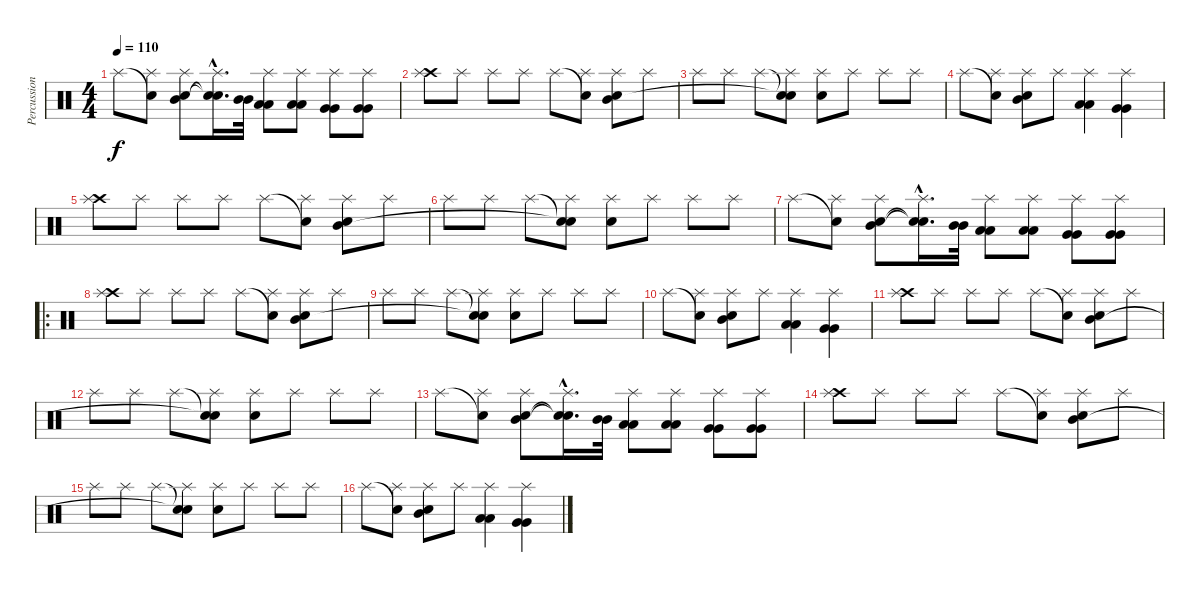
\track ("Percussions" "Percussion") {instrument percussion}
\staff {score}
\articulation defaults
\ts (4 4)
\tempo 110
\clef neutral
\ks c "Splash (hit)".8{dy f}
("Snare (hit)"{t} "Splash (hit)").8 ("Electric Snare (hit)" "Mid Tom (hit)" "Splash (hit)").8 ("Snare (hit)"{hac t} "Snare (hit)"{hac t} "Splash (hit)"{hac}).16{d} ("Mid Tom (hit)" "Mid Tom (hit)").32 ("Low Tom (hit)" "Low Tom (hit)" "Splash (hit)").8 ("Low Tom (hit)" "Low Tom (hit)" "Splash (hit)").8 ("Very Low Tom (hit)" "Very Low Tom (hit)" "Splash (hit)").8 ("Very Low Tom (hit)" "Very Low Tom (hit)" "Splash (hit)").8 |
("Crash high (hit)" "Splash (hit)").8 "Splash (hit)".8 "Splash (hit)".8 "Splash (hit)".8 "Splash (hit)".8 ("Electric Snare (hit)"{t} "Splash (hit)").8 ("Electric Snare (hit)" "Mid Tom (hit)" "Splash (hit)").8 "Splash (hit)".8 |
"Splash (hit)".8 "Splash (hit)".8 "Splash (hit)".8 ("Snare (hit)"{t} "Snare (hit)"{t} "Splash (hit)").8 ("Electric Snare (hit)" "Splash (hit)").8 "Splash (hit)".8 "Splash (hit)".8 "Splash (hit)".8 |
"Splash (hit)".8 ("Snare (hit)"{t} "Splash (hit)").8 ("Electric Snare (hit)" "Mid Tom (hit)" "Splash (hit)").8 "Splash (hit)".8 ("Low Tom (hit)" "Low Tom (hit)" "Splash (hit)").4 ("Very Low Tom (hit)" "Very Low Tom (hit)" "Splash (hit)").4 |
("Crash high (hit)" "Splash (hit)").8 "Splash (hit)".8 "Splash (hit)".8 "Splash (hit)".8 "Splash (hit)".8 ("Electric Snare (hit)"{t} "Splash (hit)").8 ("Electric Snare (hit)" "Mid Tom (hit)" "Splash (hit)").8 "Splash (hit)".8 |
"Splash (hit)".8 "Splash (hit)".8 "Splash (hit)".8 ("Snare (hit)"{t} "Snare (hit)"{t} "Splash (hit)").8 ("Electric Snare (hit)" "Splash (hit)").8 "Splash (hit)".8 "Splash (hit)".8 "Splash (hit)".8 |
"Splash (hit)".8 ("Snare (hit)"{t} "Splash (hit)").8 ("Electric Snare (hit)" "Mid Tom (hit)" "Splash (hit)").8 ("Snare (hit)"{hac t} "Snare (hit)"{hac t} "Splash (hit)"{hac}).16{d} ("Mid Tom (hit)" "Mid Tom (hit)").32 ("Low Tom (hit)" "Low Tom (hit)" "Splash (hit)").8 ("Low Tom (hit)" "Low Tom (hit)" "Splash (hit)").8 ("Very Low Tom (hit)" "Very Low Tom (hit)" "Splash (hit)").8 ("Very Low Tom (hit)" "Very Low Tom (hit)" "Splash (hit)").8 |
\ro
("Crash high (hit)" "Splash (hit)").8 "Splash (hit)".8 "Splash (hit)".8 "Splash (hit)".8 "Splash (hit)".8 ("Electric Snare (hit)"{t} "Splash (hit)").8 ("Electric Snare (hit)" "Mid Tom (hit)" "Splash (hit)").8 "Splash (hit)".8 |
"Splash (hit)".8 "Splash (hit)".8 "Splash (hit)".8 ("Snare (hit)"{t} "Snare (hit)"{t} "Splash (hit)").8 ("Electric Snare (hit)" "Splash (hit)").8 "Splash (hit)".8 "Splash (hit)".8 "Splash (hit)".8 |
"Splash (hit)".8 ("Snare (hit)"{t} "Splash (hit)").8 ("Electric Snare (hit)" "Mid Tom (hit)" "Splash (hit)").8 "Splash (hit)".8 ("Low Tom (hit)" "Low Tom (hit)" "Splash (hit)").4 ("Very Low Tom (hit)" "Very Low Tom (hit)" "Splash (hit)").4 |
("Crash high (hit)" "Splash (hit)").8 "Splash (hit)".8 "Splash (hit)".8 "Splash (hit)".8 "Splash (hit)".8 ("Electric Snare (hit)"{t} "Splash (hit)").8 ("Electric Snare (hit)" "Mid Tom (hit)" "Splash (hit)").8 "Splash (hit)".8 |
"Splash (hit)".8 "Splash (hit)".8 "Splash (hit)".8 ("Snare (hit)"{t} "Snare (hit)"{t} "Splash (hit)").8 ("Electric Snare (hit)" "Splash (hit)").8 "Splash (hit)".8 "Splash (hit)".8 "Splash (hit)".8 |
"Splash (hit)".8 ("Snare (hit)"{t} "Splash (hit)").8 ("Electric Snare (hit)" "Mid Tom (hit)" "Splash (hit)").8 ("Snare (hit)"{hac t} "Snare (hit)"{hac t} "Splash (hit)"{hac}).16{d} ("Mid Tom (hit)" "Mid Tom (hit)").32 ("Low Tom (hit)" "Low Tom (hit)" "Splash (hit)").8 ("Low Tom (hit)" "Low Tom (hit)" "Splash (hit)").8 ("Very Low Tom (hit)" "Very Low Tom (hit)" "Splash (hit)").8 ("Very Low Tom (hit)" "Very Low Tom (hit)" "Splash (hit)").8 |
("Crash high (hit)" "Splash (hit)").8 "Splash (hit)".8 "Splash (hit)".8 "Splash (hit)".8 "Splash (hit)".8 ("Electric Snare (hit)"{t} "Splash (hit)").8 ("Electric Snare (hit)" "Mid Tom (hit)" "Splash (hit)").8 "Splash (hit)".8 |
"Splash (hit)".8 "Splash (hit)".8 "Splash (hit)".8 ("Snare (hit)"{t} "Snare (hit)"{t} "Splash (hit)").8 ("Electric Snare (hit)" "Splash (hit)").8 "Splash (hit)".8 "Splash (hit)".8 "Splash (hit)".8 |
"Splash (hit)".8 ("Snare (hit)"{t} "Splash (hit)").8 ("Electric Snare (hit)" "Mid Tom (hit)" "Splash (hit)").8 "Splash (hit)".8 ("Low Tom (hit)" "Low Tom (hit)" "Splash (hit)").4 ("Very Low Tom (hit)" "Very Low Tom (hit)" "Splash (hit)").4
